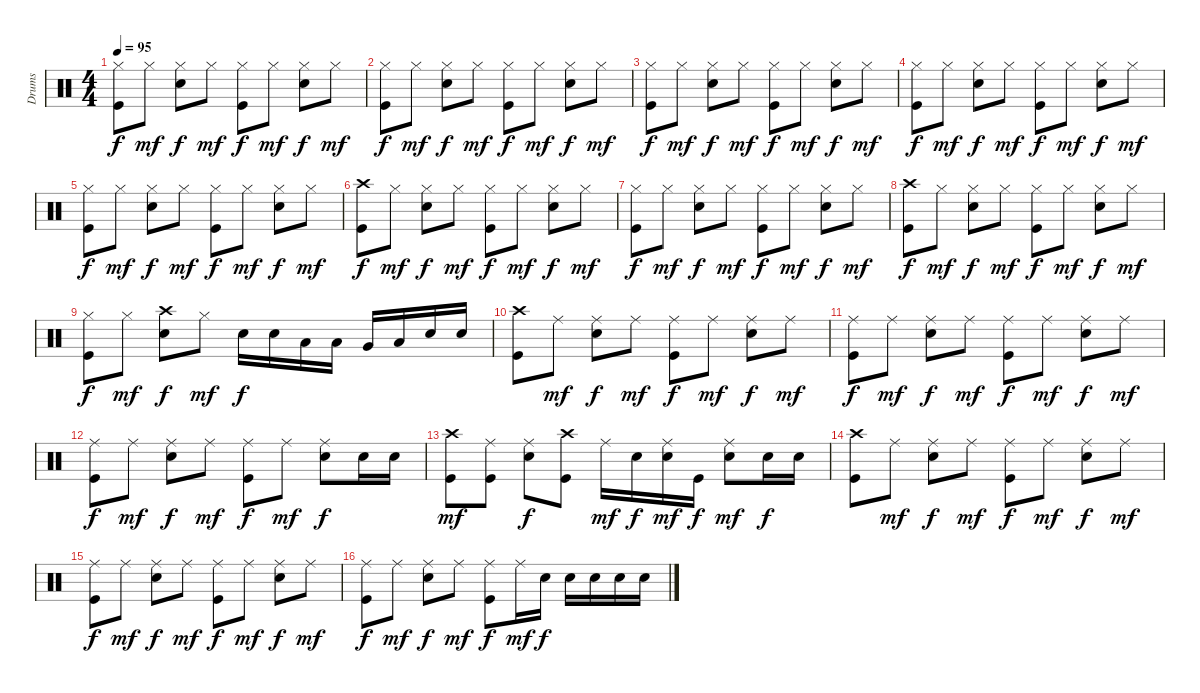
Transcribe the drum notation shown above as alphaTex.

\track ("Drums" "Drums") {instrument percussion}
\staff {score}
\articulation defaults
\ts (4 4)
\tempo 95
\clef neutral
\ks c
("Hi-Hat (closed)" "Kick (hit)").8{dy f} "Hi-Hat (closed)".8{dy mf} ("Hi-Hat (closed)" "Snare (hit) 2").8{dy f} "Hi-Hat (closed)".8{dy mf} ("Hi-Hat (closed)" "Kick (hit)").8{dy f} "Hi-Hat (closed)".8{dy mf} ("Hi-Hat (closed)" "Snare (hit) 2").8{dy f} "Hi-Hat (closed)".8{dy mf} |
("Hi-Hat (closed)" "Kick (hit)").8{dy f} "Hi-Hat (closed)".8{dy mf} ("Hi-Hat (closed)" "Snare (hit) 2").8{dy f} "Hi-Hat (closed)".8{dy mf} ("Hi-Hat (closed)" "Kick (hit)").8{dy f} "Hi-Hat (closed)".8{dy mf} ("Hi-Hat (closed)" "Snare (hit) 2").8{dy f} "Hi-Hat (closed)".8{dy mf} |
("Hi-Hat (closed)" "Kick (hit)").8{dy f} "Hi-Hat (closed)".8{dy mf} ("Hi-Hat (closed)" "Snare (hit) 2").8{dy f} "Hi-Hat (closed)".8{dy mf} ("Hi-Hat (closed)" "Kick (hit)").8{dy f} "Hi-Hat (closed)".8{dy mf} ("Hi-Hat (closed)" "Snare (hit) 2").8{dy f} "Hi-Hat (closed)".8{dy mf} |
("Hi-Hat (closed)" "Kick (hit)").8{dy f} "Hi-Hat (closed)".8{dy mf} ("Hi-Hat (closed)" "Snare (hit) 2").8{dy f} "Hi-Hat (closed)".8{dy mf} ("Hi-Hat (closed)" "Kick (hit)").8{dy f} "Hi-Hat (closed)".8{dy mf} ("Hi-Hat (closed)" "Snare (hit) 2").8{dy f} "Hi-Hat (closed)".8{dy mf} |
("Hi-Hat (closed)" "Kick (hit)").8{dy f} "Hi-Hat (closed)".8{dy mf} ("Hi-Hat (closed)" "Snare (hit) 2").8{dy f} "Hi-Hat (closed)".8{dy mf} ("Hi-Hat (closed)" "Kick (hit)").8{dy f} "Hi-Hat (closed)".8{dy mf} ("Hi-Hat (closed)" "Snare (hit) 2").8{dy f} "Hi-Hat (closed)".8{dy mf} |
("Crash high (hit)" "Kick (hit)").8{dy f} "Hi-Hat (closed)".8{dy mf} ("Hi-Hat (closed)" "Snare (hit) 2").8{dy f} "Hi-Hat (closed)".8{dy mf} ("Hi-Hat (closed)" "Kick (hit)").8{dy f} "Hi-Hat (closed)".8{dy mf} ("Hi-Hat (closed)" "Snare (hit) 2").8{dy f} "Hi-Hat (closed)".8{dy mf} |
("Hi-Hat (closed)" "Kick (hit)").8{dy f} "Hi-Hat (closed)".8{dy mf} ("Hi-Hat (closed)" "Snare (hit) 2").8{dy f} "Hi-Hat (closed)".8{dy mf} ("Hi-Hat (closed)" "Kick (hit)").8{dy f} "Hi-Hat (closed)".8{dy mf} ("Hi-Hat (closed)" "Snare (hit) 2").8{dy f} "Hi-Hat (closed)".8{dy mf} |
("Crash high (hit)" "Kick (hit)").8{dy f} "Hi-Hat (closed)".8{dy mf} ("Hi-Hat (closed)" "Snare (hit) 2").8{dy f} "Hi-Hat (closed)".8{dy mf} ("Hi-Hat (closed)" "Kick (hit)").8{dy f} "Hi-Hat (closed)".8{dy mf} ("Hi-Hat (closed)" "Snare (hit) 2").8{dy f} "Hi-Hat (closed)".8{dy mf} |
("Hi-Hat (closed)" "Kick (hit)").8{dy f} "Hi-Hat (closed)".8{dy mf} ("Crash high (hit)" "Snare (hit) 2").8{dy f} "Hi-Hat (closed)".8{dy mf} "Snare (hit) 2".16{dy f} "Snare (hit) 2".16 "Low Tom (hit)".16 "Low Tom (hit)".16 "Very Low Tom (hit)".16 "Low Tom (hit)".16 "Snare (hit) 2".16 "Snare (hit) 2".16 |
("Crash high (hit)" "Kick (hit)").8 "Ride (middle)".8{dy mf} ("Ride (middle)" "Snare (hit) 2").8{dy f} "Ride (middle)".8{dy mf} ("Ride (middle)" "Kick (hit)").8{dy f} "Ride (middle)".8{dy mf} ("Ride (middle)" "Snare (hit) 2").8{dy f} "Ride (middle)".8{dy mf} |
("Ride (middle)" "Kick (hit)").8{dy f} "Ride (middle)".8{dy mf} ("Ride (middle)" "Snare (hit) 2").8{dy f} "Ride (middle)".8{dy mf} ("Ride (middle)" "Kick (hit)").8{dy f} "Ride (middle)".8{dy mf} ("Ride (middle)" "Snare (hit) 2").8{dy f} "Ride (middle)".8{dy mf} |
("Ride (middle)" "Kick (hit)").8{dy f} "Ride (middle)".8{dy mf} ("Ride (middle)" "Snare (hit) 2").8{dy f} "Ride (middle)".8{dy mf} ("Ride (middle)" "Kick (hit)").8{dy f} "Ride (middle)".8{dy mf} ("Ride (middle)" "Snare (hit) 2").8{dy f} "Snare (hit) 2".16 "Snare (hit) 2".16 |
("Crash high (hit)" "Kick (hit)").8{dy mf} ("Ride (middle)" "Kick (hit)").8 ("Ride (middle)" "Snare (hit) 2").8{dy f} ("Crash high (hit)" "Kick (hit)").8 "Ride (middle)".16{dy mf} "Snare (hit) 2".16{dy f} ("Ride (middle)" "Snare (hit) 2").16{dy mf} "Kick (hit)".16{dy f} ("Ride (middle)" "Snare (hit) 2").8{dy mf} "Snare (hit) 2".16{dy f} "Snare (hit) 2".16 |
("Crash high (hit)" "Kick (hit)").8 "Ride (middle)".8{dy mf} ("Ride (middle)" "Snare (hit) 2").8{dy f} "Ride (middle)".8{dy mf} ("Ride (middle)" "Kick (hit)").8{dy f} "Ride (middle)".8{dy mf} ("Ride (middle)" "Snare (hit) 2").8{dy f} "Ride (middle)".8{dy mf} |
("Ride (middle)" "Kick (hit)").8{dy f} "Ride (middle)".8{dy mf} ("Ride (middle)" "Snare (hit) 2").8{dy f} "Ride (middle)".8{dy mf} ("Ride (middle)" "Kick (hit)").8{dy f} "Ride (middle)".8{dy mf} ("Ride (middle)" "Snare (hit) 2").8{dy f} "Ride (middle)".8{dy mf} |
("Ride (middle)" "Kick (hit)").8{dy f} "Ride (middle)".8{dy mf} ("Ride (middle)" "Snare (hit) 2").8{dy f} "Ride (middle)".8{dy mf} ("Ride (middle)" "Kick (hit)").8{dy f} "Ride (middle)".16{dy mf} "Snare (hit) 2".16{dy f} "Snare (hit) 2".16 "Snare (hit) 2".16 "Snare (hit) 2".16 "Snare (hit) 2".16
